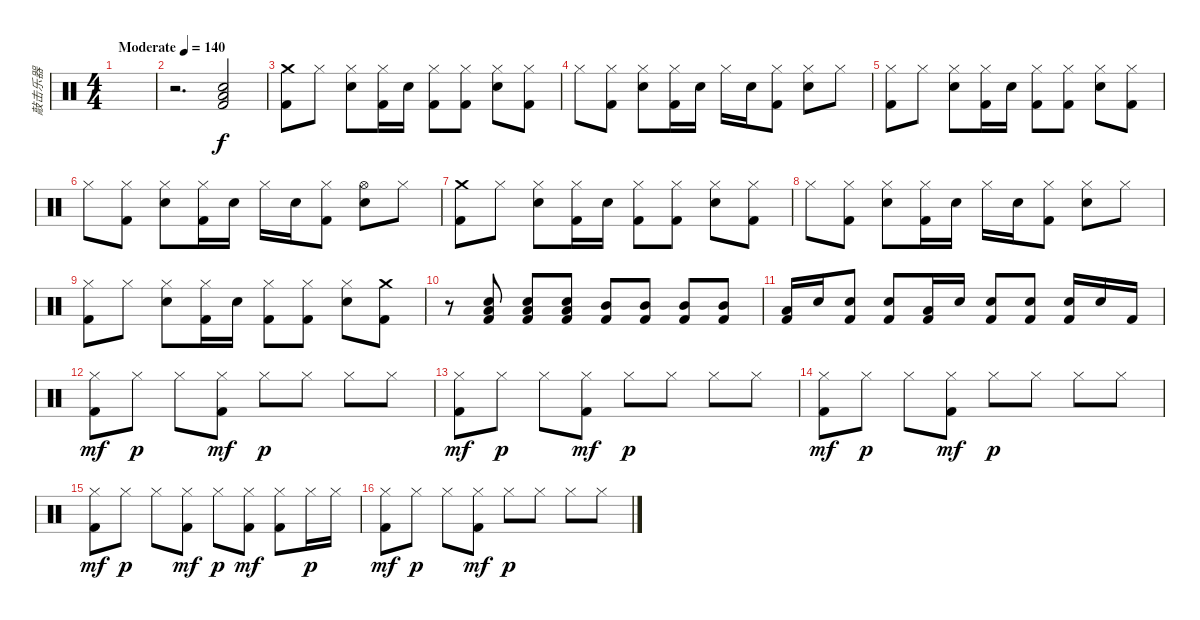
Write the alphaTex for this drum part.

\track ("敲击乐器" "敲击乐器") {instrument percussion}
\staff {score}
\articulation defaults
\ts (4 4)
\tempo (140 "Moderate")
\clef neutral
\ks c
|
r.2{d} ("Snare (hit) 2" "Low Tom (hit)" "Kick (hit) 2").2 |
("Crash medium (hit)" "Kick (hit) 2").8 "Hi-Hat (closed)".8 ("Hi-Hat (closed)" "Snare (hit) 2").8 ("Hi-Hat (closed)" "Kick (hit) 2").16 "Snare (hit) 2".16 ("Hi-Hat (closed)" "Kick (hit) 2").8 ("Hi-Hat (closed)" "Kick (hit) 2").8 ("Hi-Hat (closed)" "Snare (hit) 2").8 ("Hi-Hat (closed)" "Kick (hit) 2").8 |
"Hi-Hat (closed)".8 ("Hi-Hat (closed)" "Kick (hit) 2").8 ("Hi-Hat (closed)" "Snare (hit) 2").8 ("Hi-Hat (closed)" "Kick (hit) 2").16 "Snare (hit) 2".16 "Hi-Hat (closed)".16 "Snare (hit) 2".16 ("Hi-Hat (closed)" "Kick (hit) 2").8 ("Hi-Hat (closed)" "Snare (hit) 2").8 "Hi-Hat (closed)".8 |
("Hi-Hat (closed)" "Kick (hit) 2").8 "Hi-Hat (closed)".8 ("Hi-Hat (closed)" "Snare (hit) 2").8 ("Hi-Hat (closed)" "Kick (hit) 2").16 "Snare (hit) 2".16 ("Hi-Hat (closed)" "Kick (hit) 2").8 ("Hi-Hat (closed)" "Kick (hit) 2").8 ("Hi-Hat (closed)" "Snare (hit) 2").8 ("Hi-Hat (closed)" "Kick (hit) 2").8 |
"Hi-Hat (closed)".8 ("Hi-Hat (closed)" "Kick (hit) 2").8 ("Hi-Hat (closed)" "Snare (hit) 2").8 ("Hi-Hat (closed)" "Kick (hit) 2").16 "Snare (hit) 2".16 "Hi-Hat (closed)".16 "Snare (hit) 2".16 ("Hi-Hat (closed)" "Kick (hit) 2").8 ("Hi-Hat (open)" "Snare (hit) 2").8 "Hi-Hat (closed)".8 |
("Crash medium (hit)" "Kick (hit) 2").8 "Hi-Hat (closed)".8 ("Hi-Hat (closed)" "Snare (hit) 2").8 ("Hi-Hat (closed)" "Kick (hit) 2").16 "Snare (hit) 2".16 ("Hi-Hat (closed)" "Kick (hit) 2").8 ("Hi-Hat (closed)" "Kick (hit) 2").8 ("Hi-Hat (closed)" "Snare (hit) 2").8 ("Hi-Hat (closed)" "Kick (hit) 2").8 |
"Hi-Hat (closed)".8 ("Hi-Hat (closed)" "Kick (hit) 2").8 ("Hi-Hat (closed)" "Snare (hit) 2").8 ("Hi-Hat (closed)" "Kick (hit) 2").16 "Snare (hit) 2".16 "Hi-Hat (closed)".16 "Snare (hit) 2".16 ("Hi-Hat (closed)" "Kick (hit) 2").8 ("Hi-Hat (closed)" "Snare (hit) 2").8 "Hi-Hat (closed)".8 |
("Hi-Hat (closed)" "Kick (hit) 2").8 "Hi-Hat (closed)".8 ("Hi-Hat (closed)" "Snare (hit) 2").8 ("Hi-Hat (closed)" "Kick (hit) 2").16 "Snare (hit) 2".16 ("Hi-Hat (closed)" "Kick (hit) 2").8 ("Hi-Hat (closed)" "Kick (hit) 2").8 ("Hi-Hat (closed)" "Snare (hit) 2").8 ("Crash medium (hit)" "Kick (hit) 2").8 |
r.8 ("Low Tom (hit)" "Snare (hit) 2" "Kick (hit) 2").8 ("Low Tom (hit)" "Snare (hit) 2" "Kick (hit) 2").8 ("Low Tom (hit)" "Snare (hit) 2" "Kick (hit) 2").8 ("Mid Tom (hit)" "Kick (hit) 2").8 ("Mid Tom (hit)" "Kick (hit) 2").8 ("Mid Tom (hit)" "Kick (hit) 2").8 ("Mid Tom (hit)" "Kick (hit) 2").8 |
("Low Floor Tom (hit)" "Kick (hit) 2").16 "Snare (hit) 2".16 ("Snare (hit) 2" "Kick (hit) 2").8 ("Snare (hit) 2" "Kick (hit) 2").8 ("Low Floor Tom (hit)" "Kick (hit) 2").16 "Snare (hit) 2".16 ("Snare (hit) 2" "Kick (hit) 2").8 ("Snare (hit) 2" "Kick (hit) 2").8 ("Snare (hit) 2" "Kick (hit) 2").16 "Snare (hit) 2".16 "Kick (hit) 2".16 |
("Hi-Hat (closed)" "Kick (hit) 2").8{dy mf} "Hi-Hat (closed)".8{dy p} "Hi-Hat (closed)".8 ("Hi-Hat (closed)" "Kick (hit) 2").8{dy mf} "Hi-Hat (closed)".8{dy p} "Hi-Hat (closed)".8 "Hi-Hat (closed)".8 "Hi-Hat (closed)".8 |
("Hi-Hat (closed)" "Kick (hit) 2").8{dy mf} "Hi-Hat (closed)".8{dy p} "Hi-Hat (closed)".8 ("Hi-Hat (closed)" "Kick (hit) 2").8{dy mf} "Hi-Hat (closed)".8{dy p} "Hi-Hat (closed)".8 "Hi-Hat (closed)".8 "Hi-Hat (closed)".8 |
("Hi-Hat (closed)" "Kick (hit) 2").8{dy mf} "Hi-Hat (closed)".8{dy p} "Hi-Hat (closed)".8 ("Hi-Hat (closed)" "Kick (hit) 2").8{dy mf} "Hi-Hat (closed)".8{dy p} "Hi-Hat (closed)".8 "Hi-Hat (closed)".8 "Hi-Hat (closed)".8 |
("Hi-Hat (closed)" "Kick (hit) 2").8{dy mf} "Hi-Hat (closed)".8{dy p} "Hi-Hat (closed)".8 ("Hi-Hat (closed)" "Kick (hit) 2").8{dy mf} "Hi-Hat (closed)".8{dy p} ("Hi-Hat (closed)" "Kick (hit) 2").8{dy mf} ("Hi-Hat (closed)" "Kick (hit) 2").8 "Hi-Hat (closed)".16{dy p} "Hi-Hat (closed)".16 |
("Hi-Hat (closed)" "Kick (hit) 2").8{dy mf} "Hi-Hat (closed)".8{dy p} "Hi-Hat (closed)".8 ("Hi-Hat (closed)" "Kick (hit) 2").8{dy mf} "Hi-Hat (closed)".8{dy p} "Hi-Hat (closed)".8 "Hi-Hat (closed)".8 "Hi-Hat (closed)".8
